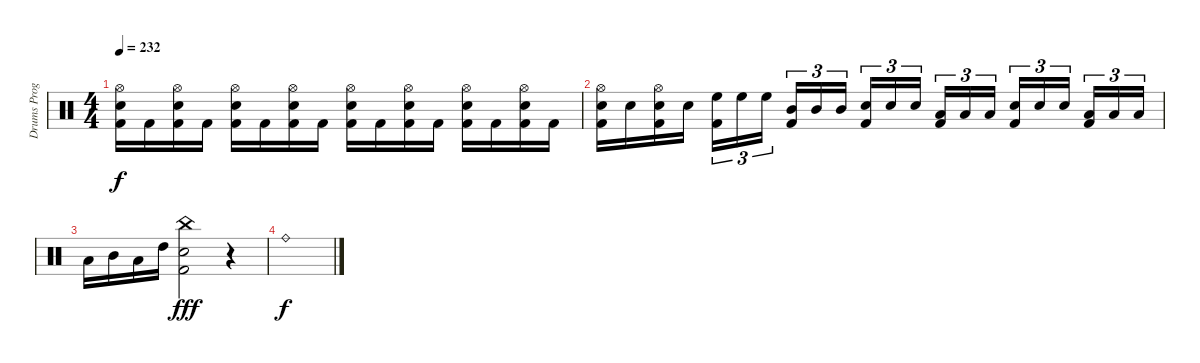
\track ("Drums Programming" "Drums Prog") {instrument percussion}
\staff {score}
\articulation defaults
\ts (4 4)
\tempo 232
\clef neutral
\ks c
("Hi-Hat (open)" "Electric Snare (hit)" "Kick (hit) 2").16{dy f} "Kick (hit) 2".16 ("Hi-Hat (open)" "Electric Snare (hit)" "Kick (hit) 2").16 "Kick (hit) 2".16 ("Hi-Hat (open)" "Electric Snare (hit)" "Kick (hit) 2").16 "Kick (hit) 2".16 ("Hi-Hat (open)" "Electric Snare (hit)" "Kick (hit) 2").16 "Kick (hit) 2".16 ("Hi-Hat (open)" "Electric Snare (hit)" "Kick (hit) 2").16 "Kick (hit) 2".16 ("Hi-Hat (open)" "Electric Snare (hit)" "Kick (hit) 2").16 "Kick (hit) 2".16 ("Hi-Hat (open)" "Electric Snare (hit)" "Kick (hit) 2").16 "Kick (hit) 2".16 ("Hi-Hat (open)" "Electric Snare (hit)" "Kick (hit) 2").16 "Kick (hit) 2".16 |
("Hi-Hat (open)" "Electric Snare (hit)" "Kick (hit) 2").16 "Electric Snare (hit)".16 ("Hi-Hat (open)" "Electric Snare (hit)" "Kick (hit) 2").16 "Electric Snare (hit)".16 ("High Floor Tom (hit)" "Kick (hit) 2").16{tu (3 2)} "High Floor Tom (hit)".16{tu (3 2)} "High Floor Tom (hit)".16{tu (3 2)} ("Mid Tom (hit)" "Kick (hit) 2").16{tu (3 2)} "Mid Tom (hit)".16{tu (3 2)} "Mid Tom (hit)".16{tu (3 2)} ("Electric Snare (hit)" "Kick (hit) 2").16{tu (3 2)} "Electric Snare (hit)".16{tu (3 2)} "Electric Snare (hit)".16{tu (3 2)} ("Low Tom (hit)" "Kick (hit) 2").16{tu (3 2)} "Low Tom (hit)".16{tu (3 2)} "Low Tom (hit)".16{tu (3 2)} ("Electric Snare (hit)" "Kick (hit) 2").16{tu (3 2)} "Electric Snare (hit)".16{tu (3 2)} "Electric Snare (hit)".16{tu (3 2)} ("Low Floor Tom (hit)" "Kick (hit) 2").16{tu (3 2)} "Low Floor Tom (hit)".16{tu (3 2)} "Low Floor Tom (hit)".16{tu (3 2)} |
"Low Tom (hit)".16 "Mid Tom (hit)".16 "Low Tom (hit)".16 "High Tom (hit)".16 ("Electric Snare (hit)" "China (hit)" "Kick (hit) 2").2{dy fff balance 0} r.4 |
"Ride (bell)".1{dy f balance 16}
